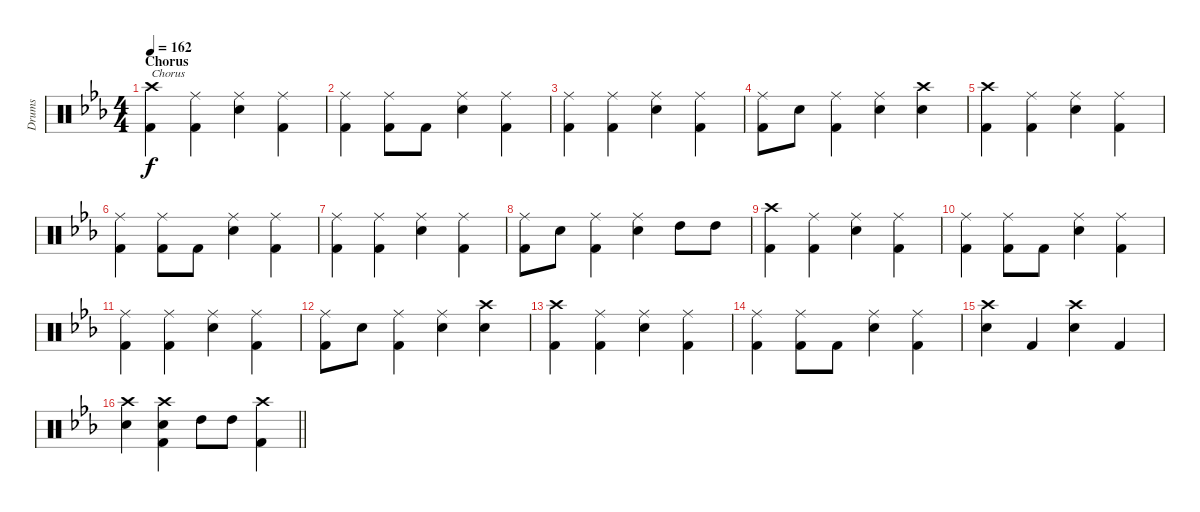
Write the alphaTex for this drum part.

\track ("Drums" "Drums") {instrument percussion}
\staff {score}
\articulation defaults
\ts (4 4)
\section ("" "Chorus")
\tempo 162
\clef neutral
\ks eb
("Crash high (hit)" "Kick (hit) 2").4{txt "Chorus" dy f} ("Ride (middle)" "Kick (hit) 2").4 ("Ride (middle)" "Electric Snare (hit)").4 ("Ride (middle)" "Kick (hit) 2").4 |
("Ride (middle)" "Kick (hit) 2").4 ("Ride (middle)" "Kick (hit) 2").8 "Kick (hit) 2".8 ("Ride (middle)" "Electric Snare (hit)").4 ("Ride (middle)" "Kick (hit) 2").4 |
("Ride (middle)" "Kick (hit) 2").4 ("Ride (middle)" "Kick (hit) 2").4 ("Ride (middle)" "Electric Snare (hit)").4 ("Ride (middle)" "Kick (hit) 2").4 |
("Ride (middle)" "Kick (hit) 2").8 "Electric Snare (hit)".8 ("Ride (middle)" "Kick (hit) 2").4 ("Ride (middle)" "Electric Snare (hit)").4 ("Crash high (hit)" "Electric Snare (hit)").4 |
("Crash high (hit)" "Kick (hit) 2").4 ("Ride (middle)" "Kick (hit) 2").4 ("Ride (middle)" "Electric Snare (hit)").4 ("Ride (middle)" "Kick (hit) 2").4 |
("Ride (middle)" "Kick (hit) 2").4 ("Ride (middle)" "Kick (hit) 2").8 "Kick (hit) 2".8 ("Ride (middle)" "Electric Snare (hit)").4 ("Ride (middle)" "Kick (hit) 2").4 |
("Ride (middle)" "Kick (hit) 2").4 ("Ride (middle)" "Kick (hit) 2").4 ("Ride (middle)" "Electric Snare (hit)").4 ("Ride (middle)" "Kick (hit) 2").4 |
("Ride (middle)" "Kick (hit) 2").8 "Electric Snare (hit)".8 ("Ride (middle)" "Kick (hit) 2").4 ("Ride (middle)" "Electric Snare (hit)").4 "High Tom (hit)".8 "High Tom (hit)".8 |
("Crash high (hit)" "Kick (hit) 2").4 ("Ride (middle)" "Kick (hit) 2").4 ("Ride (middle)" "Electric Snare (hit)").4 ("Ride (middle)" "Kick (hit) 2").4 |
("Ride (middle)" "Kick (hit) 2").4 ("Ride (middle)" "Kick (hit) 2").8 "Kick (hit) 2".8 ("Ride (middle)" "Electric Snare (hit)").4 ("Ride (middle)" "Kick (hit) 2").4 |
("Ride (middle)" "Kick (hit) 2").4 ("Ride (middle)" "Kick (hit) 2").4 ("Ride (middle)" "Electric Snare (hit)").4 ("Ride (middle)" "Kick (hit) 2").4 |
("Ride (middle)" "Kick (hit) 2").8 "Electric Snare (hit)".8 ("Ride (middle)" "Kick (hit) 2").4 ("Ride (middle)" "Electric Snare (hit)").4 ("Crash high (hit)" "Electric Snare (hit)").4 |
("Crash high (hit)" "Kick (hit) 2").4 ("Ride (middle)" "Kick (hit) 2").4 ("Ride (middle)" "Electric Snare (hit)").4 ("Ride (middle)" "Kick (hit) 2").4 |
("Ride (middle)" "Kick (hit) 2").4 ("Ride (middle)" "Kick (hit) 2").8 "Kick (hit) 2".8 ("Ride (middle)" "Electric Snare (hit)").4 ("Ride (middle)" "Kick (hit) 2").4 |
("Crash high (hit)" "Electric Snare (hit)").4 "Kick (hit) 2".4 ("Crash high (hit)" "Electric Snare (hit)").4 "Kick (hit) 2".4 |
\barLineRight lightlight
("Crash high (hit)" "Electric Snare (hit)").4 ("Crash high (hit)" "Electric Snare (hit)" "Kick (hit) 2").4 "High Tom (hit)".8 "High Tom (hit)".8 ("Crash high (hit)" "Kick (hit) 2").4
